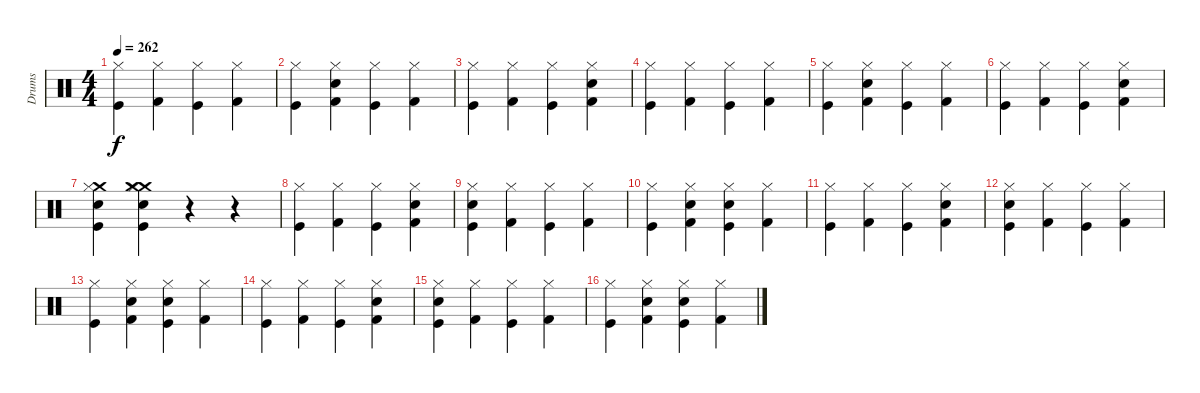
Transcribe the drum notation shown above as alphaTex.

\track ("Drums" "Drums") {instrument percussion}
\staff {score}
\articulation defaults
\ts (4 4)
\tempo 262
\clef neutral
\ks c
("Hi-Hat (closed)" "Kick (hit)").4{dy f} ("Hi-Hat (closed)" "Kick (hit) 2").4 ("Hi-Hat (closed)" "Kick (hit)").4 ("Hi-Hat (closed)" "Kick (hit) 2").4 |
("Hi-Hat (closed)" "Kick (hit)").4 ("Electric Snare (hit)" "Hi-Hat (closed)" "Kick (hit) 2").4 ("Hi-Hat (closed)" "Kick (hit)").4 ("Hi-Hat (closed)" "Kick (hit) 2").4 |
("Hi-Hat (closed)" "Kick (hit)").4 ("Hi-Hat (closed)" "Kick (hit) 2").4 ("Hi-Hat (closed)" "Kick (hit)").4 ("Electric Snare (hit)" "Hi-Hat (closed)" "Kick (hit) 2").4 |
("Hi-Hat (closed)" "Kick (hit)").4 ("Hi-Hat (closed)" "Kick (hit) 2").4 ("Hi-Hat (closed)" "Kick (hit)").4 ("Hi-Hat (closed)" "Kick (hit) 2").4 |
("Hi-Hat (closed)" "Kick (hit)").4 ("Electric Snare (hit)" "Hi-Hat (closed)" "Kick (hit) 2").4 ("Hi-Hat (closed)" "Kick (hit)").4 ("Hi-Hat (closed)" "Kick (hit) 2").4 |
("Hi-Hat (closed)" "Kick (hit)").4 ("Hi-Hat (closed)" "Kick (hit) 2").4 ("Hi-Hat (closed)" "Kick (hit)").4 ("Electric Snare (hit)" "Hi-Hat (closed)" "Kick (hit) 2").4 |
("Crash medium (hit)" "Electric Snare (hit)" "Hi-Hat (closed)" "Kick (hit)").4 ("Crash medium (hit)" "Crash medium (hit)" "Electric Snare (hit)" "Hi-Hat (closed)" "Kick (hit)").4 r.4 r.4 |
("Hi-Hat (closed)" "Kick (hit)").4 ("Hi-Hat (closed)" "Kick (hit) 2").4 ("Hi-Hat (closed)" "Kick (hit)").4 ("Electric Snare (hit)" "Hi-Hat (closed)" "Kick (hit) 2").4 |
("Electric Snare (hit)" "Hi-Hat (closed)" "Kick (hit)").4 ("Hi-Hat (closed)" "Kick (hit) 2").4 ("Hi-Hat (closed)" "Kick (hit)").4 ("Hi-Hat (closed)" "Kick (hit) 2").4 |
("Hi-Hat (closed)" "Kick (hit)").4 ("Electric Snare (hit)" "Hi-Hat (closed)" "Kick (hit) 2").4 ("Electric Snare (hit)" "Hi-Hat (closed)" "Kick (hit)").4 ("Hi-Hat (closed)" "Kick (hit) 2").4 |
("Hi-Hat (closed)" "Kick (hit)").4 ("Hi-Hat (closed)" "Kick (hit) 2").4 ("Hi-Hat (closed)" "Kick (hit)").4 ("Electric Snare (hit)" "Hi-Hat (closed)" "Kick (hit) 2").4 |
("Electric Snare (hit)" "Hi-Hat (closed)" "Kick (hit)").4 ("Hi-Hat (closed)" "Kick (hit) 2").4 ("Hi-Hat (closed)" "Kick (hit)").4 ("Hi-Hat (closed)" "Kick (hit) 2").4 |
("Hi-Hat (closed)" "Kick (hit)").4 ("Electric Snare (hit)" "Hi-Hat (closed)" "Kick (hit) 2").4 ("Electric Snare (hit)" "Hi-Hat (closed)" "Kick (hit)").4 ("Hi-Hat (closed)" "Kick (hit) 2").4 |
("Hi-Hat (closed)" "Kick (hit)").4 ("Hi-Hat (closed)" "Kick (hit) 2").4 ("Hi-Hat (closed)" "Kick (hit)").4 ("Electric Snare (hit)" "Hi-Hat (closed)" "Kick (hit) 2").4 |
("Electric Snare (hit)" "Hi-Hat (closed)" "Kick (hit)").4 ("Hi-Hat (closed)" "Kick (hit) 2").4 ("Hi-Hat (closed)" "Kick (hit)").4 ("Hi-Hat (closed)" "Kick (hit) 2").4 |
("Hi-Hat (closed)" "Kick (hit)").4 ("Electric Snare (hit)" "Hi-Hat (closed)" "Kick (hit) 2").4 ("Electric Snare (hit)" "Hi-Hat (closed)" "Kick (hit)").4 ("Hi-Hat (closed)" "Kick (hit) 2").4
